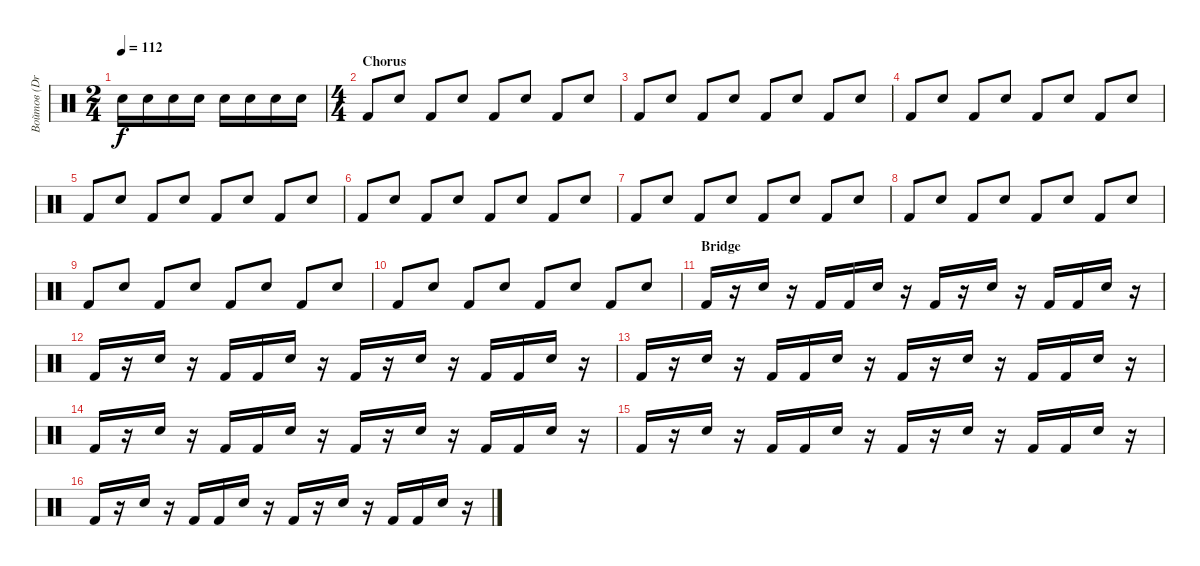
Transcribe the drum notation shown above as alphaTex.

\track ("Войтов (Drums)" "Войтов (Dr") {instrument percussion}
\staff {score}
\articulation defaults
\ts (2 4)
\tempo 112
\clef neutral
\ks c "Electric Snare (hit)".16{dy f} "Electric Snare (hit)".16 "Electric Snare (hit)".16 "Electric Snare (hit)".16 "Electric Snare (hit)".16 "Electric Snare (hit)".16 "Electric Snare (hit)".16 "Electric Snare (hit)".16
|
\ts (4 4)
\section ("" "Chorus")
"Kick (hit) 2".8 "Electric Snare (hit)".8 "Kick (hit) 2".8 "Electric Snare (hit)".8 "Kick (hit) 2".8 "Electric Snare (hit)".8 "Kick (hit) 2".8 "Electric Snare (hit)".8 |
"Kick (hit) 2".8 "Electric Snare (hit)".8 "Kick (hit) 2".8 "Electric Snare (hit)".8 "Kick (hit) 2".8 "Electric Snare (hit)".8 "Kick (hit) 2".8 "Electric Snare (hit)".8 |
"Kick (hit) 2".8 "Electric Snare (hit)".8 "Kick (hit) 2".8 "Electric Snare (hit)".8 "Kick (hit) 2".8 "Electric Snare (hit)".8 "Kick (hit) 2".8 "Electric Snare (hit)".8 |
"Kick (hit) 2".8 "Electric Snare (hit)".8 "Kick (hit) 2".8 "Electric Snare (hit)".8 "Kick (hit) 2".8 "Electric Snare (hit)".8 "Kick (hit) 2".8 "Electric Snare (hit)".8 |
"Kick (hit) 2".8 "Electric Snare (hit)".8 "Kick (hit) 2".8 "Electric Snare (hit)".8 "Kick (hit) 2".8 "Electric Snare (hit)".8 "Kick (hit) 2".8 "Electric Snare (hit)".8 |
"Kick (hit) 2".8 "Electric Snare (hit)".8 "Kick (hit) 2".8 "Electric Snare (hit)".8 "Kick (hit) 2".8 "Electric Snare (hit)".8 "Kick (hit) 2".8 "Electric Snare (hit)".8 |
"Kick (hit) 2".8 "Electric Snare (hit)".8 "Kick (hit) 2".8 "Electric Snare (hit)".8 "Kick (hit) 2".8 "Electric Snare (hit)".8 "Kick (hit) 2".8 "Electric Snare (hit)".8 |
"Kick (hit) 2".8 "Electric Snare (hit)".8 "Kick (hit) 2".8 "Electric Snare (hit)".8 "Kick (hit) 2".8 "Electric Snare (hit)".8 "Kick (hit) 2".8 "Electric Snare (hit)".8 |
"Kick (hit) 2".8 "Electric Snare (hit)".8 "Kick (hit) 2".8 "Electric Snare (hit)".8 "Kick (hit) 2".8 "Electric Snare (hit)".8 "Kick (hit) 2".8 "Electric Snare (hit)".8 |
\section ("" "Bridge")
"Kick (hit) 2".16 r.16 "Electric Snare (hit)".16 r.16 "Kick (hit) 2".16 "Kick (hit) 2".16 "Electric Snare (hit)".16 r.16 "Kick (hit) 2".16 r.16 "Electric Snare (hit)".16 r.16 "Kick (hit) 2".16 "Kick (hit) 2".16 "Electric Snare (hit)".16 r.16 |
"Kick (hit) 2".16 r.16 "Electric Snare (hit)".16 r.16 "Kick (hit) 2".16 "Kick (hit) 2".16 "Electric Snare (hit)".16 r.16 "Kick (hit) 2".16 r.16 "Electric Snare (hit)".16 r.16 "Kick (hit) 2".16 "Kick (hit) 2".16 "Electric Snare (hit)".16 r.16 |
"Kick (hit) 2".16 r.16 "Electric Snare (hit)".16 r.16 "Kick (hit) 2".16 "Kick (hit) 2".16 "Electric Snare (hit)".16 r.16 "Kick (hit) 2".16 r.16 "Electric Snare (hit)".16 r.16 "Kick (hit) 2".16 "Kick (hit) 2".16 "Electric Snare (hit)".16 r.16 |
"Kick (hit) 2".16 r.16 "Electric Snare (hit)".16 r.16 "Kick (hit) 2".16 "Kick (hit) 2".16 "Electric Snare (hit)".16 r.16 "Kick (hit) 2".16 r.16 "Electric Snare (hit)".16 r.16 "Kick (hit) 2".16 "Kick (hit) 2".16 "Electric Snare (hit)".16 r.16 |
"Kick (hit) 2".16 r.16 "Electric Snare (hit)".16 r.16 "Kick (hit) 2".16 "Kick (hit) 2".16 "Electric Snare (hit)".16 r.16 "Kick (hit) 2".16 r.16 "Electric Snare (hit)".16 r.16 "Kick (hit) 2".16 "Kick (hit) 2".16 "Electric Snare (hit)".16 r.16 |
"Kick (hit) 2".16 r.16 "Electric Snare (hit)".16 r.16 "Kick (hit) 2".16 "Kick (hit) 2".16 "Electric Snare (hit)".16 r.16 "Kick (hit) 2".16 r.16 "Electric Snare (hit)".16 r.16 "Kick (hit) 2".16 "Kick (hit) 2".16 "Electric Snare (hit)".16 r.16
